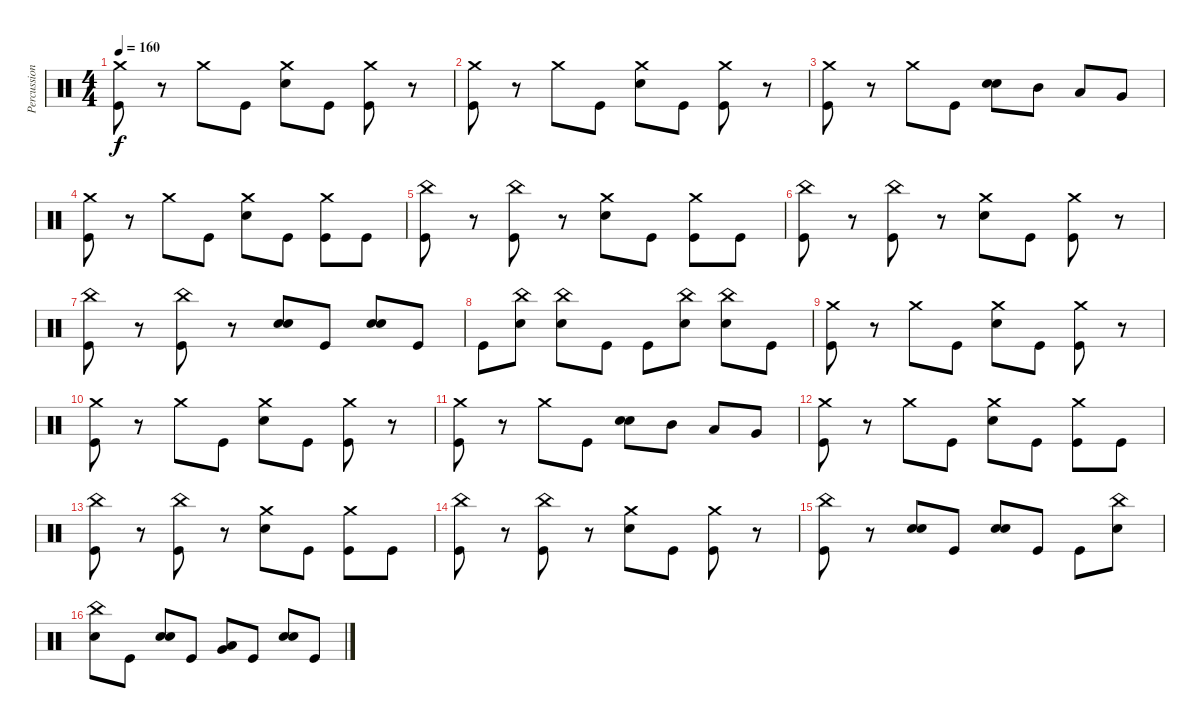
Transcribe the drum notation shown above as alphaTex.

\track ("Percussion" "Percussion") {instrument percussion}
\staff {score}
\articulation defaults
\ts (4 4)
\tempo 160
\clef neutral
\ks c
("Crash medium (hit)" "Kick (hit)").8{dy f} r.8 "Crash medium (hit)".8 "Kick (hit)".8 ("Crash medium (hit)" "Snare (hit) 2").8 "Kick (hit)".8 ("Crash medium (hit)" "Kick (hit)").8 r.8 |
("Crash medium (hit)" "Kick (hit)").8 r.8 "Crash medium (hit)".8 "Kick (hit)".8 ("Crash medium (hit)" "Snare (hit) 2").8 "Kick (hit)".8 ("Crash medium (hit)" "Kick (hit)").8 r.8 |
("Crash medium (hit)" "Kick (hit)").8 r.8 "Crash medium (hit)".8 "Kick (hit)".8 ("Snare (hit) 2" "Snare (hit) 2").8{bd 120} "Mid Tom (hit)".8 "Low Tom (hit)".8 "Very Low Tom (hit)".8 |
("Crash medium (hit)" "Kick (hit)").8 r.8 "Crash medium (hit)".8 "Kick (hit)".8 ("Crash medium (hit)" "Snare (hit) 2").8 "Kick (hit)".8 ("Crash medium (hit)" "Kick (hit)").8 "Kick (hit)".8 |
("China (hit)" "Kick (hit)").8 r.8 ("China (hit)" "Kick (hit)").8 r.8 ("Crash medium (hit)" "Snare (hit) 2").8 "Kick (hit)".8 ("Crash medium (hit)" "Kick (hit)").8 "Kick (hit)".8 |
("China (hit)" "Kick (hit)").8 r.8 ("China (hit)" "Kick (hit)").8 r.8 ("Crash medium (hit)" "Snare (hit) 2").8 "Kick (hit)".8 ("Crash medium (hit)" "Kick (hit)").8 r.8 |
("China (hit)" "Kick (hit)").8 r.8 ("China (hit)" "Kick (hit)").8 r.8 ("Snare (hit) 2" "Snare (hit) 2").8{bd 120} "Kick (hit)".8 ("Snare (hit) 2" "Snare (hit) 2").8{bd 120} "Kick (hit)".8 |
"Kick (hit)".8 ("China (hit)" "Snare (hit) 2").8 ("China (hit)" "Snare (hit) 2").8 "Kick (hit)".8 "Kick (hit)".8 ("China (hit)" "Snare (hit) 2").8 ("China (hit)" "Snare (hit) 2").8 "Kick (hit)".8 |
("Crash medium (hit)" "Kick (hit)").8 r.8 "Crash medium (hit)".8 "Kick (hit)".8 ("Crash medium (hit)" "Snare (hit) 2").8 "Kick (hit)".8 ("Crash medium (hit)" "Kick (hit)").8 r.8 |
("Crash medium (hit)" "Kick (hit)").8 r.8 "Crash medium (hit)".8 "Kick (hit)".8 ("Crash medium (hit)" "Snare (hit) 2").8 "Kick (hit)".8 ("Crash medium (hit)" "Kick (hit)").8 r.8 |
("Crash medium (hit)" "Kick (hit)").8 r.8 "Crash medium (hit)".8 "Kick (hit)".8 ("Snare (hit) 2" "Snare (hit) 2").8{bd 120} "Mid Tom (hit)".8 "Low Tom (hit)".8 "Very Low Tom (hit)".8 |
("Crash medium (hit)" "Kick (hit)").8 r.8 "Crash medium (hit)".8 "Kick (hit)".8 ("Crash medium (hit)" "Snare (hit) 2").8 "Kick (hit)".8 ("Crash medium (hit)" "Kick (hit)").8 "Kick (hit)".8 |
("China (hit)" "Kick (hit)").8 r.8 ("China (hit)" "Kick (hit)").8 r.8 ("Crash medium (hit)" "Snare (hit) 2").8 "Kick (hit)".8 ("Crash medium (hit)" "Kick (hit)").8 "Kick (hit)".8 |
("China (hit)" "Kick (hit)").8 r.8 ("China (hit)" "Kick (hit)").8 r.8 ("Crash medium (hit)" "Snare (hit) 2").8 "Kick (hit)".8 ("Crash medium (hit)" "Kick (hit)").8 r.8 |
("China (hit)" "Kick (hit)").8 r.8 ("Snare (hit) 2" "Snare (hit) 2").8{bd 120} "Kick (hit)".8 ("Snare (hit) 2" "Snare (hit) 2").8{bd 120} "Kick (hit)".8 "Kick (hit)".8 ("China (hit)" "Snare (hit) 2").8 |
("China (hit)" "Snare (hit) 2").8 "Kick (hit)".8 ("Snare (hit) 2" "Snare (hit) 2").8{bd 120} "Kick (hit)".8 ("Low Tom (hit)" "Very Low Tom (hit)").8{bd 120} "Kick (hit)".8 ("Snare (hit) 2" "Snare (hit) 2").8{bd 120} "Kick (hit)".8
